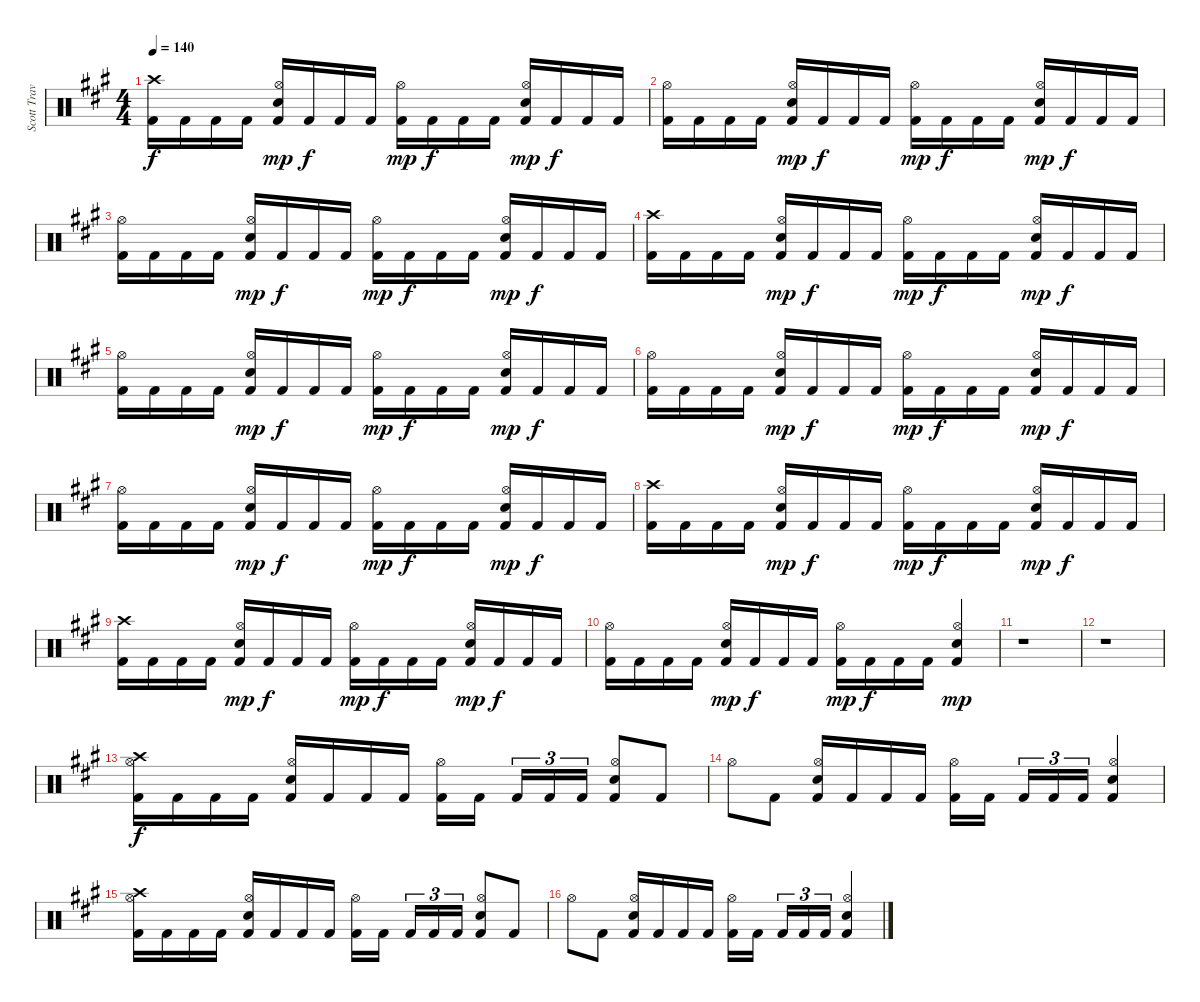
\track ("Scott Travis" "Scott Trav") {instrument percussion}
\staff {score}
\articulation defaults
\ts (4 4)
\tempo 140
\clef neutral
\ks f#minor
("Crash high (hit)" "Kick (hit) 2").16{dy f} "Kick (hit) 2".16 "Kick (hit) 2".16 "Kick (hit) 2".16 ("Hi-Hat (open)" "Snare (hit) 2" "Kick (hit) 2").16{dy mp} "Kick (hit) 2".16{dy f} "Kick (hit) 2".16 "Kick (hit) 2".16 ("Hi-Hat (open)" "Kick (hit) 2").16{dy mp} "Kick (hit) 2".16{dy f} "Kick (hit) 2".16 "Kick (hit) 2".16 ("Hi-Hat (open)" "Snare (hit) 2" "Kick (hit) 2").16{dy mp} "Kick (hit) 2".16{dy f} "Kick (hit) 2".16 "Kick (hit) 2".16 |
("Hi-Hat (open)" "Kick (hit) 2").16 "Kick (hit) 2".16 "Kick (hit) 2".16 "Kick (hit) 2".16 ("Hi-Hat (open)" "Snare (hit) 2" "Kick (hit) 2").16{dy mp} "Kick (hit) 2".16{dy f} "Kick (hit) 2".16 "Kick (hit) 2".16 ("Hi-Hat (open)" "Kick (hit) 2").16{dy mp} "Kick (hit) 2".16{dy f} "Kick (hit) 2".16 "Kick (hit) 2".16 ("Hi-Hat (open)" "Snare (hit) 2" "Kick (hit) 2").16{dy mp} "Kick (hit) 2".16{dy f} "Kick (hit) 2".16 "Kick (hit) 2".16 |
("Hi-Hat (open)" "Kick (hit) 2").16 "Kick (hit) 2".16 "Kick (hit) 2".16 "Kick (hit) 2".16 ("Hi-Hat (open)" "Snare (hit) 2" "Kick (hit) 2").16{dy mp} "Kick (hit) 2".16{dy f} "Kick (hit) 2".16 "Kick (hit) 2".16 ("Hi-Hat (open)" "Kick (hit) 2").16{dy mp} "Kick (hit) 2".16{dy f} "Kick (hit) 2".16 "Kick (hit) 2".16 ("Hi-Hat (open)" "Snare (hit) 2" "Kick (hit) 2").16{dy mp} "Kick (hit) 2".16{dy f} "Kick (hit) 2".16 "Kick (hit) 2".16 |
("Crash high (hit)" "Kick (hit) 2").16 "Kick (hit) 2".16 "Kick (hit) 2".16 "Kick (hit) 2".16 ("Hi-Hat (open)" "Snare (hit) 2" "Kick (hit) 2").16{dy mp} "Kick (hit) 2".16{dy f} "Kick (hit) 2".16 "Kick (hit) 2".16 ("Hi-Hat (open)" "Kick (hit) 2").16{dy mp} "Kick (hit) 2".16{dy f} "Kick (hit) 2".16 "Kick (hit) 2".16 ("Hi-Hat (open)" "Snare (hit) 2" "Kick (hit) 2").16{dy mp} "Kick (hit) 2".16{dy f} "Kick (hit) 2".16 "Kick (hit) 2".16 |
("Hi-Hat (open)" "Kick (hit) 2").16 "Kick (hit) 2".16 "Kick (hit) 2".16 "Kick (hit) 2".16 ("Hi-Hat (open)" "Snare (hit) 2" "Kick (hit) 2").16{dy mp} "Kick (hit) 2".16{dy f} "Kick (hit) 2".16 "Kick (hit) 2".16 ("Hi-Hat (open)" "Kick (hit) 2").16{dy mp} "Kick (hit) 2".16{dy f} "Kick (hit) 2".16 "Kick (hit) 2".16 ("Hi-Hat (open)" "Snare (hit) 2" "Kick (hit) 2").16{dy mp} "Kick (hit) 2".16{dy f} "Kick (hit) 2".16 "Kick (hit) 2".16 |
("Hi-Hat (open)" "Kick (hit) 2").16 "Kick (hit) 2".16 "Kick (hit) 2".16 "Kick (hit) 2".16 ("Hi-Hat (open)" "Snare (hit) 2" "Kick (hit) 2").16{dy mp} "Kick (hit) 2".16{dy f} "Kick (hit) 2".16 "Kick (hit) 2".16 ("Hi-Hat (open)" "Kick (hit) 2").16{dy mp} "Kick (hit) 2".16{dy f} "Kick (hit) 2".16 "Kick (hit) 2".16 ("Hi-Hat (open)" "Snare (hit) 2" "Kick (hit) 2").16{dy mp} "Kick (hit) 2".16{dy f} "Kick (hit) 2".16 "Kick (hit) 2".16 |
("Hi-Hat (open)" "Kick (hit) 2").16 "Kick (hit) 2".16 "Kick (hit) 2".16 "Kick (hit) 2".16 ("Hi-Hat (open)" "Snare (hit) 2" "Kick (hit) 2").16{dy mp} "Kick (hit) 2".16{dy f} "Kick (hit) 2".16 "Kick (hit) 2".16 ("Hi-Hat (open)" "Kick (hit) 2").16{dy mp} "Kick (hit) 2".16{dy f} "Kick (hit) 2".16 "Kick (hit) 2".16 ("Hi-Hat (open)" "Snare (hit) 2" "Kick (hit) 2").16{dy mp} "Kick (hit) 2".16{dy f} "Kick (hit) 2".16 "Kick (hit) 2".16 |
("Crash high (hit)" "Kick (hit) 2").16 "Kick (hit) 2".16 "Kick (hit) 2".16 "Kick (hit) 2".16 ("Hi-Hat (open)" "Snare (hit) 2" "Kick (hit) 2").16{dy mp} "Kick (hit) 2".16{dy f} "Kick (hit) 2".16 "Kick (hit) 2".16 ("Hi-Hat (open)" "Kick (hit) 2").16{dy mp} "Kick (hit) 2".16{dy f} "Kick (hit) 2".16 "Kick (hit) 2".16 ("Hi-Hat (open)" "Snare (hit) 2" "Kick (hit) 2").16{dy mp} "Kick (hit) 2".16{dy f} "Kick (hit) 2".16 "Kick (hit) 2".16 |
("Crash high (hit)" "Kick (hit) 2").16 "Kick (hit) 2".16 "Kick (hit) 2".16 "Kick (hit) 2".16 ("Hi-Hat (open)" "Snare (hit) 2" "Kick (hit) 2").16{dy mp} "Kick (hit) 2".16{dy f} "Kick (hit) 2".16 "Kick (hit) 2".16 ("Hi-Hat (open)" "Kick (hit) 2").16{dy mp} "Kick (hit) 2".16{dy f} "Kick (hit) 2".16 "Kick (hit) 2".16 ("Hi-Hat (open)" "Snare (hit) 2" "Kick (hit) 2").16{dy mp} "Kick (hit) 2".16{dy f} "Kick (hit) 2".16 "Kick (hit) 2".16 |
("Hi-Hat (open)" "Kick (hit) 2").16 "Kick (hit) 2".16 "Kick (hit) 2".16 "Kick (hit) 2".16 ("Hi-Hat (open)" "Electric Snare (hit)" "Kick (hit) 2").16{dy mp} "Kick (hit) 2".16{dy f} "Kick (hit) 2".16 "Kick (hit) 2".16 ("Hi-Hat (open)" "Kick (hit) 2").16{dy mp} "Kick (hit) 2".16{dy f} "Kick (hit) 2".16 "Kick (hit) 2".16 ("Hi-Hat (open)" "Electric Snare (hit)" "Kick (hit) 2").4{dy mp} |
r.1 |
r.1 |
("Hi-Hat (open)" "Crash high (hit)" "Kick (hit) 2").16{dy f} "Kick (hit) 2".16 "Kick (hit) 2".16 "Kick (hit) 2".16 ("Hi-Hat (open)" "Electric Snare (hit)" "Kick (hit) 2").16 "Kick (hit) 2".16 "Kick (hit) 2".16 "Kick (hit) 2".16 ("Hi-Hat (open)" "Kick (hit) 2").16 "Kick (hit) 2".16{beam splitsecondary} "Kick (hit) 2".16{tu (3 2)} "Kick (hit) 2".16{tu (3 2)} "Kick (hit) 2".16{tu (3 2)} ("Hi-Hat (open)" "Electric Snare (hit)" "Kick (hit) 2").8 "Kick (hit) 2".8 |
"Hi-Hat (open)".8 "Kick (hit) 2".8 ("Hi-Hat (open)" "Electric Snare (hit)" "Kick (hit) 2").16 "Kick (hit) 2".16 "Kick (hit) 2".16 "Kick (hit) 2".16 ("Hi-Hat (open)" "Kick (hit) 2").16 "Kick (hit) 2".16{beam splitsecondary} "Kick (hit) 2".16{tu (3 2)} "Kick (hit) 2".16{tu (3 2)} "Kick (hit) 2".16{tu (3 2)} ("Hi-Hat (open)" "Electric Snare (hit)" "Kick (hit) 2").4 |
("Hi-Hat (open)" "Crash high (hit)" "Kick (hit) 2").16 "Kick (hit) 2".16 "Kick (hit) 2".16 "Kick (hit) 2".16 ("Hi-Hat (open)" "Electric Snare (hit)" "Kick (hit) 2").16 "Kick (hit) 2".16 "Kick (hit) 2".16 "Kick (hit) 2".16 ("Hi-Hat (open)" "Kick (hit) 2").16 "Kick (hit) 2".16{beam splitsecondary} "Kick (hit) 2".16{tu (3 2)} "Kick (hit) 2".16{tu (3 2)} "Kick (hit) 2".16{tu (3 2)} ("Hi-Hat (open)" "Electric Snare (hit)" "Kick (hit) 2").8 "Kick (hit) 2".8 |
"Hi-Hat (open)".8 "Kick (hit) 2".8 ("Hi-Hat (open)" "Electric Snare (hit)" "Kick (hit) 2").16 "Kick (hit) 2".16 "Kick (hit) 2".16 "Kick (hit) 2".16 ("Hi-Hat (open)" "Kick (hit) 2").16 "Kick (hit) 2".16{beam splitsecondary} "Kick (hit) 2".16{tu (3 2)} "Kick (hit) 2".16{tu (3 2)} "Kick (hit) 2".16{tu (3 2)} ("Hi-Hat (open)" "Electric Snare (hit)" "Kick (hit) 2").4
